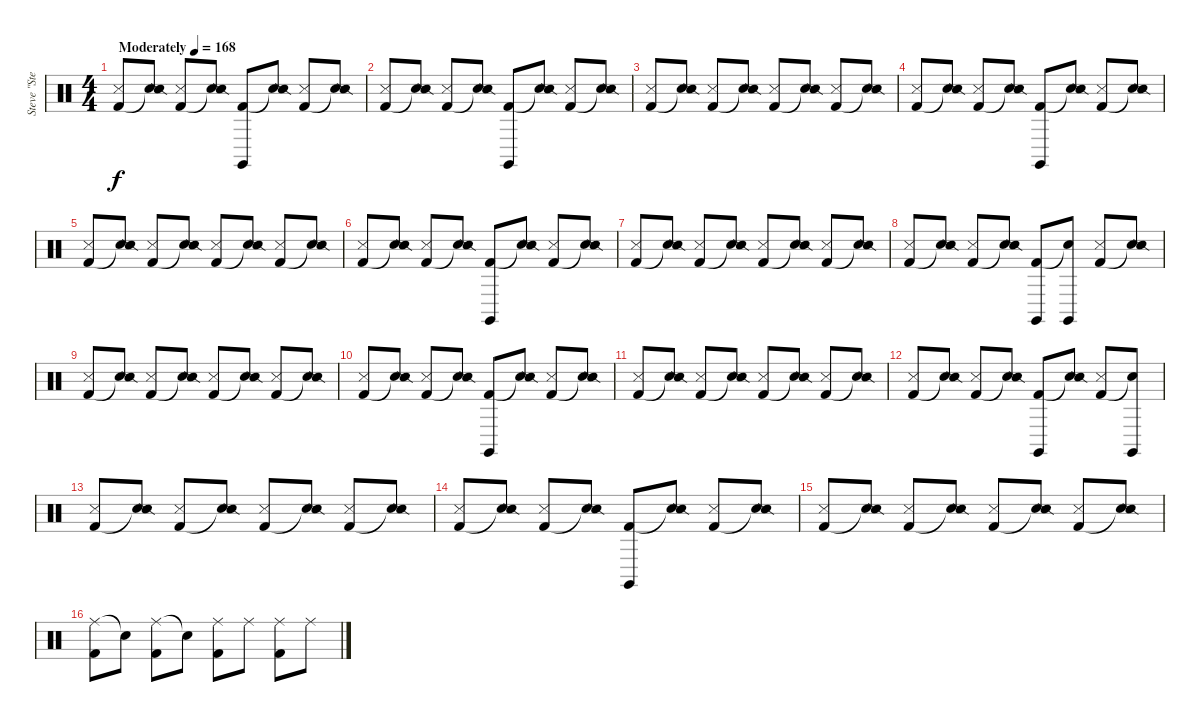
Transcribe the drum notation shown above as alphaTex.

\track ("Steve \"Stevo 32\" Jocz" "Steve \"Ste") {instrument percussion}
\staff {score}
\articulation defaults
\ts (4 4)
\tempo (168 "Moderately")
\clef neutral
\ks c
("Kick (hit) 2" "Metronome (hit)").8{dy f} ("Snare (hit)"{t} "Snare (side stick) 2").8 ("Kick (hit) 2" "Metronome (hit)").8 ("Snare (hit)"{t} "Snare (side stick) 2").8 ("Kick (hit) 2" "Claves (hit)").8 ("Snare (hit)"{t} "Snare (side stick) 2").8 ("Kick (hit) 2" "Metronome (hit)").8 ("Snare (hit)"{t} "Snare (side stick) 2").8 |
("Kick (hit) 2" "Metronome (hit)").8 ("Snare (hit)"{t} "Snare (side stick) 2").8 ("Kick (hit) 2" "Metronome (hit)").8 ("Snare (hit)"{t} "Snare (side stick) 2").8 ("Kick (hit) 2" "Claves (hit)").8 ("Snare (hit)"{t} "Snare (side stick) 2").8 ("Kick (hit) 2" "Metronome (hit)").8 ("Snare (hit)"{t} "Snare (side stick) 2").8 |
("Kick (hit) 2" "Metronome (hit)").8 ("Snare (hit)"{t} "Snare (side stick) 2").8 ("Kick (hit) 2" "Metronome (hit)").8 ("Snare (hit)"{t} "Snare (side stick) 2").8 ("Kick (hit) 2" "Metronome (hit)").8 ("Snare (hit)"{t} "Snare (side stick) 2").8 ("Kick (hit) 2" "Metronome (hit)").8 ("Snare (hit)"{t} "Snare (side stick) 2").8 |
("Kick (hit) 2" "Metronome (hit)").8 ("Snare (hit)"{t} "Snare (side stick) 2").8 ("Kick (hit) 2" "Metronome (hit)").8 ("Snare (hit)"{t} "Snare (side stick) 2").8 ("Kick (hit) 2" "Claves (hit)").8 ("Snare (hit)"{t} "Snare (side stick) 2").8 ("Kick (hit) 2" "Metronome (hit)").8 ("Snare (hit)"{t} "Snare (side stick) 2").8 |
("Kick (hit) 2" "Metronome (hit)").8 ("Snare (hit)"{t} "Snare (side stick) 2").8 ("Kick (hit) 2" "Metronome (hit)").8 ("Snare (hit)"{t} "Snare (side stick) 2").8 ("Kick (hit) 2" "Metronome (hit)").8 ("Snare (hit)"{t} "Snare (side stick) 2").8 ("Kick (hit) 2" "Metronome (hit)").8 ("Snare (hit)"{t} "Snare (side stick) 2").8 |
("Kick (hit) 2" "Metronome (hit)").8 ("Snare (hit)"{t} "Snare (side stick) 2").8 ("Kick (hit) 2" "Metronome (hit)").8 ("Snare (hit)"{t} "Snare (side stick) 2").8 ("Kick (hit) 2" "Claves (hit)").8 ("Snare (hit)"{t} "Snare (side stick) 2").8 ("Kick (hit) 2" "Metronome (hit)").8 ("Snare (hit)"{t} "Snare (side stick) 2").8 |
("Kick (hit) 2" "Metronome (hit)").8 ("Snare (hit)"{t} "Snare (side stick) 2").8 ("Kick (hit) 2" "Metronome (hit)").8 ("Snare (hit)"{t} "Snare (side stick) 2").8 ("Kick (hit) 2" "Metronome (hit)").8 ("Snare (hit)"{t} "Snare (side stick) 2").8 ("Kick (hit) 2" "Metronome (hit)").8 ("Snare (hit)"{t} "Snare (side stick) 2").8 |
("Kick (hit) 2" "Metronome (hit)").8 ("Snare (hit)"{t} "Snare (side stick) 2").8 ("Kick (hit) 2" "Metronome (hit)").8 ("Snare (hit)"{t} "Snare (side stick) 2").8 ("Kick (hit) 2" "Claves (hit)").8 ("Snare (hit)"{t} "Claves (hit)").8 ("Kick (hit) 2" "Metronome (hit)").8 ("Snare (hit)"{t} "Snare (side stick) 2").8 |
("Kick (hit) 2" "Metronome (hit)").8 ("Snare (hit)"{t} "Snare (side stick) 2").8 ("Kick (hit) 2" "Metronome (hit)").8 ("Snare (hit)"{t} "Snare (side stick) 2").8 ("Kick (hit) 2" "Metronome (hit)").8 ("Snare (hit)"{t} "Snare (side stick) 2").8 ("Kick (hit) 2" "Metronome (hit)").8 ("Snare (hit)"{t} "Snare (side stick) 2").8 |
("Kick (hit) 2" "Metronome (hit)").8 ("Snare (hit)"{t} "Snare (side stick) 2").8 ("Kick (hit) 2" "Metronome (hit)").8 ("Snare (hit)"{t} "Snare (side stick) 2").8 ("Kick (hit) 2" "Claves (hit)").8 ("Snare (hit)"{t} "Snare (side stick) 2").8 ("Kick (hit) 2" "Metronome (hit)").8 ("Snare (hit)"{t} "Snare (side stick) 2").8 |
("Kick (hit) 2" "Metronome (hit)").8 ("Snare (hit)"{t} "Snare (side stick) 2").8 ("Kick (hit) 2" "Metronome (hit)").8 ("Snare (hit)"{t} "Snare (side stick) 2").8 ("Kick (hit) 2" "Metronome (hit)").8 ("Snare (hit)"{t} "Snare (side stick) 2").8 ("Kick (hit) 2" "Metronome (hit)").8 ("Snare (hit)"{t} "Snare (side stick) 2").8 |
("Kick (hit) 2" "Metronome (hit)").8 ("Snare (hit)"{t} "Snare (side stick) 2").8 ("Kick (hit) 2" "Metronome (hit)").8 ("Snare (hit)"{t} "Snare (side stick) 2").8 ("Kick (hit) 2" "Claves (hit)").8 ("Snare (hit)"{t} "Snare (side stick) 2").8 ("Kick (hit) 2" "Metronome (hit)").8 ("Snare (hit)"{t} "Claves (hit)").8 |
("Kick (hit) 2" "Metronome (hit)").8 ("Snare (hit)"{t} "Snare (side stick) 2").8 ("Kick (hit) 2" "Metronome (hit)").8 ("Snare (hit)"{t} "Snare (side stick) 2").8 ("Kick (hit) 2" "Metronome (hit)").8 ("Snare (hit)"{t} "Snare (side stick) 2").8 ("Kick (hit) 2" "Metronome (hit)").8 ("Snare (hit)"{t} "Snare (side stick) 2").8 |
("Kick (hit) 2" "Metronome (hit)").8 ("Snare (hit)"{t} "Snare (side stick) 2").8 ("Kick (hit) 2" "Metronome (hit)").8 ("Snare (hit)"{t} "Snare (side stick) 2").8 ("Kick (hit) 2" "Claves (hit)").8 ("Snare (hit)"{t} "Snare (side stick) 2").8 ("Kick (hit) 2" "Metronome (hit)").8 ("Snare (hit)"{t} "Snare (side stick) 2").8 |
("Kick (hit) 2" "Metronome (hit)").8 ("Snare (hit)"{t} "Snare (side stick) 2").8 ("Kick (hit) 2" "Metronome (hit)").8 ("Snare (hit)"{t} "Snare (side stick) 2").8 ("Kick (hit) 2" "Metronome (hit)").8 ("Snare (hit)"{t} "Snare (side stick) 2").8 ("Kick (hit) 2" "Metronome (hit)").8 ("Snare (hit)"{t} "Snare (side stick) 2").8 |
("Ride (middle)" "Kick (hit) 2").8 "Snare (hit)"{t}.8 ("Ride (middle)" "Kick (hit) 2").8 "Snare (hit)"{t}.8 ("Ride (middle)" "Kick (hit) 2").8 "Ride (middle)".8 ("Ride (middle)" "Kick (hit) 2").8 "Ride (middle)".8
